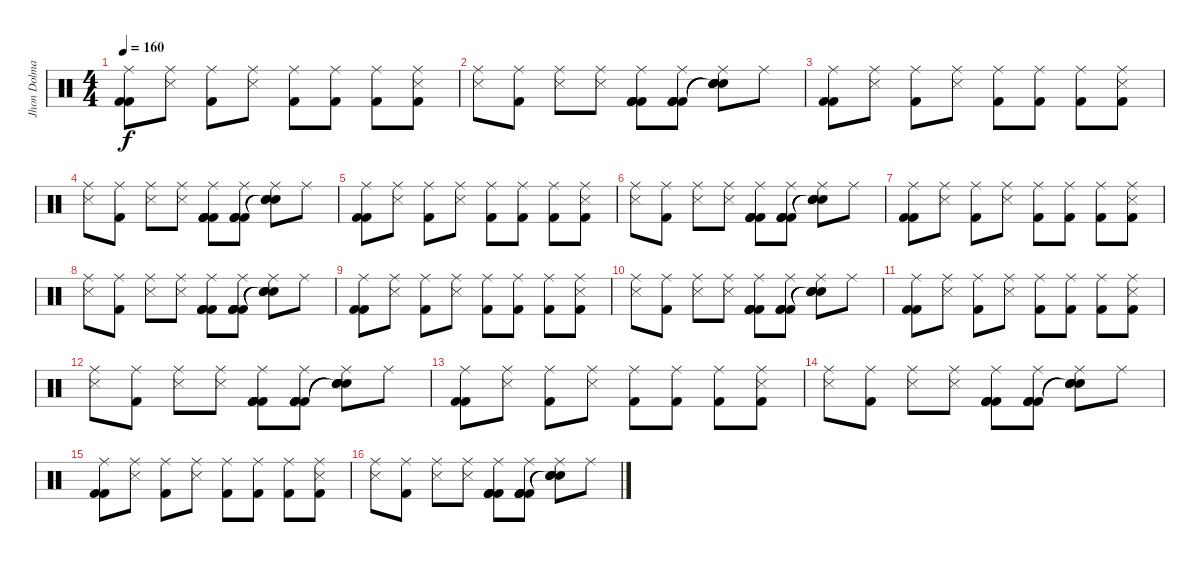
\track ("Jhon Dolmayan(Drum)" "Jhon Dolma") {instrument percussion}
\staff {score}
\articulation defaults
\ts (4 4)
\tempo 160
\clef neutral
\ks c
("Ride (middle)" "Kick (hit) 2" "Kick (hit) 2").8{dy f} ("Ride (middle)" "Snare (side stick) 3").8 ("Ride (middle)" "Kick (hit) 2").8 ("Ride (middle)" "Snare (side stick) 3").8 ("Ride (middle)" "Kick (hit) 2").8 ("Ride (middle)" "Kick (hit) 2").8 ("Ride (middle)" "Kick (hit) 2").8 ("Ride (middle)" "Snare (side stick) 3" "Kick (hit) 2").8 |
("Ride (middle)" "Snare (side stick) 3").8 ("Ride (middle)" "Kick (hit) 2").8 ("Ride (middle)" "Snare (side stick) 3").8 ("Ride (middle)" "Snare (side stick) 3").8 ("Ride (middle)" "Kick (hit) 2" "Kick (hit) 2" "Kick (hit) 2" "Kick (hit) 2").8 ("Ride (middle)" "Kick (hit) 2" "Kick (hit) 2" "Kick (hit) 2" "Kick (hit) 2").8 ("Ride (middle)" "Snare (hit)"{t} "Snare (hit)"{t} "Snare (hit)"{t} "Snare (hit)"{t}).8 "Ride (middle)".8 |
("Ride (middle)" "Kick (hit) 2" "Kick (hit) 2").8 ("Ride (middle)" "Snare (side stick) 3").8 ("Ride (middle)" "Kick (hit) 2").8 ("Ride (middle)" "Snare (side stick) 3").8 ("Ride (middle)" "Kick (hit) 2").8 ("Ride (middle)" "Kick (hit) 2").8 ("Ride (middle)" "Kick (hit) 2").8 ("Ride (middle)" "Snare (side stick) 3" "Kick (hit) 2").8 |
("Ride (middle)" "Snare (side stick) 3").8 ("Ride (middle)" "Kick (hit) 2").8 ("Ride (middle)" "Snare (side stick) 3").8 ("Ride (middle)" "Snare (side stick) 3").8 ("Ride (middle)" "Kick (hit) 2" "Kick (hit) 2" "Kick (hit) 2" "Kick (hit) 2").8 ("Ride (middle)" "Kick (hit) 2" "Kick (hit) 2" "Kick (hit) 2" "Kick (hit) 2").8 ("Ride (middle)" "Snare (hit)"{t} "Snare (hit)"{t} "Snare (hit)"{t} "Snare (hit)"{t}).8 "Ride (middle)".8 |
("Ride (middle)" "Kick (hit) 2" "Kick (hit) 2").8 ("Ride (middle)" "Snare (side stick) 3").8 ("Ride (middle)" "Kick (hit) 2").8 ("Ride (middle)" "Snare (side stick) 3").8 ("Ride (middle)" "Kick (hit) 2").8 ("Ride (middle)" "Kick (hit) 2").8 ("Ride (middle)" "Kick (hit) 2").8 ("Ride (middle)" "Snare (side stick) 3" "Kick (hit) 2").8 |
("Ride (middle)" "Snare (side stick) 3").8 ("Ride (middle)" "Kick (hit) 2").8 ("Ride (middle)" "Snare (side stick) 3").8 ("Ride (middle)" "Snare (side stick) 3").8 ("Ride (middle)" "Kick (hit) 2" "Kick (hit) 2" "Kick (hit) 2" "Kick (hit) 2").8 ("Ride (middle)" "Kick (hit) 2" "Kick (hit) 2" "Kick (hit) 2" "Kick (hit) 2").8 ("Ride (middle)" "Snare (hit)"{t} "Snare (hit)"{t} "Snare (hit)"{t} "Snare (hit)"{t}).8 "Ride (middle)".8 |
("Ride (middle)" "Kick (hit) 2" "Kick (hit) 2").8 ("Ride (middle)" "Snare (side stick) 3").8 ("Ride (middle)" "Kick (hit) 2").8 ("Ride (middle)" "Snare (side stick) 3").8 ("Ride (middle)" "Kick (hit) 2").8 ("Ride (middle)" "Kick (hit) 2").8 ("Ride (middle)" "Kick (hit) 2").8 ("Ride (middle)" "Snare (side stick) 3" "Kick (hit) 2").8 |
("Ride (middle)" "Snare (side stick) 3").8 ("Ride (middle)" "Kick (hit) 2").8 ("Ride (middle)" "Snare (side stick) 3").8 ("Ride (middle)" "Snare (side stick) 3").8 ("Ride (middle)" "Kick (hit) 2" "Kick (hit) 2" "Kick (hit) 2" "Kick (hit) 2").8 ("Ride (middle)" "Kick (hit) 2" "Kick (hit) 2" "Kick (hit) 2" "Kick (hit) 2").8 ("Ride (middle)" "Snare (hit)"{t} "Snare (hit)"{t} "Snare (hit)"{t} "Snare (hit)"{t}).8 "Ride (middle)".8 |
("Ride (middle)" "Kick (hit) 2" "Kick (hit) 2").8 ("Ride (middle)" "Snare (side stick) 3").8 ("Ride (middle)" "Kick (hit) 2").8 ("Ride (middle)" "Snare (side stick) 3").8 ("Ride (middle)" "Kick (hit) 2").8 ("Ride (middle)" "Kick (hit) 2").8 ("Ride (middle)" "Kick (hit) 2").8 ("Ride (middle)" "Snare (side stick) 3" "Kick (hit) 2").8 |
("Ride (middle)" "Snare (side stick) 3").8 ("Ride (middle)" "Kick (hit) 2").8 ("Ride (middle)" "Snare (side stick) 3").8 ("Ride (middle)" "Snare (side stick) 3").8 ("Ride (middle)" "Kick (hit) 2" "Kick (hit) 2" "Kick (hit) 2" "Kick (hit) 2").8 ("Ride (middle)" "Kick (hit) 2" "Kick (hit) 2" "Kick (hit) 2" "Kick (hit) 2").8 ("Ride (middle)" "Snare (hit)"{t} "Snare (hit)"{t} "Snare (hit)"{t} "Snare (hit)"{t}).8 "Ride (middle)".8 |
("Ride (middle)" "Kick (hit) 2" "Kick (hit) 2").8 ("Ride (middle)" "Snare (side stick) 3").8 ("Ride (middle)" "Kick (hit) 2").8 ("Ride (middle)" "Snare (side stick) 3").8 ("Ride (middle)" "Kick (hit) 2").8 ("Ride (middle)" "Kick (hit) 2").8 ("Ride (middle)" "Kick (hit) 2").8 ("Ride (middle)" "Snare (side stick) 3" "Kick (hit) 2").8 |
("Ride (middle)" "Snare (side stick) 3").8 ("Ride (middle)" "Kick (hit) 2").8 ("Ride (middle)" "Snare (side stick) 3").8 ("Ride (middle)" "Snare (side stick) 3").8 ("Ride (middle)" "Kick (hit) 2" "Kick (hit) 2" "Kick (hit) 2" "Kick (hit) 2").8 ("Ride (middle)" "Kick (hit) 2" "Kick (hit) 2" "Kick (hit) 2" "Kick (hit) 2").8 ("Ride (middle)" "Snare (hit)"{t} "Snare (hit)"{t} "Snare (hit)"{t} "Snare (hit)"{t}).8 "Ride (middle)".8 |
("Ride (middle)" "Kick (hit) 2" "Kick (hit) 2").8 ("Ride (middle)" "Snare (side stick) 3").8 ("Ride (middle)" "Kick (hit) 2").8 ("Ride (middle)" "Snare (side stick) 3").8 ("Ride (middle)" "Kick (hit) 2").8 ("Ride (middle)" "Kick (hit) 2").8 ("Ride (middle)" "Kick (hit) 2").8 ("Ride (middle)" "Snare (side stick) 3" "Kick (hit) 2").8 |
("Ride (middle)" "Snare (side stick) 3").8 ("Ride (middle)" "Kick (hit) 2").8 ("Ride (middle)" "Snare (side stick) 3").8 ("Ride (middle)" "Snare (side stick) 3").8 ("Ride (middle)" "Kick (hit) 2" "Kick (hit) 2" "Kick (hit) 2" "Kick (hit) 2").8 ("Ride (middle)" "Kick (hit) 2" "Kick (hit) 2" "Kick (hit) 2" "Kick (hit) 2").8 ("Ride (middle)" "Snare (hit)"{t} "Snare (hit)"{t} "Snare (hit)"{t} "Snare (hit)"{t}).8 "Ride (middle)".8 |
("Ride (middle)" "Kick (hit) 2" "Kick (hit) 2").8 ("Ride (middle)" "Snare (side stick) 3").8 ("Ride (middle)" "Kick (hit) 2").8 ("Ride (middle)" "Snare (side stick) 3").8 ("Ride (middle)" "Kick (hit) 2").8 ("Ride (middle)" "Kick (hit) 2").8 ("Ride (middle)" "Kick (hit) 2").8 ("Ride (middle)" "Snare (side stick) 3" "Kick (hit) 2").8 |
("Ride (middle)" "Snare (side stick) 3").8 ("Ride (middle)" "Kick (hit) 2").8 ("Ride (middle)" "Snare (side stick) 3").8 ("Ride (middle)" "Snare (side stick) 3").8 ("Ride (middle)" "Kick (hit) 2" "Kick (hit) 2" "Kick (hit) 2" "Kick (hit) 2").8 ("Ride (middle)" "Kick (hit) 2" "Kick (hit) 2" "Kick (hit) 2" "Kick (hit) 2").8 ("Ride (middle)" "Snare (hit)"{t} "Snare (hit)"{t} "Snare (hit)"{t} "Snare (hit)"{t}).8 "Ride (middle)".8
